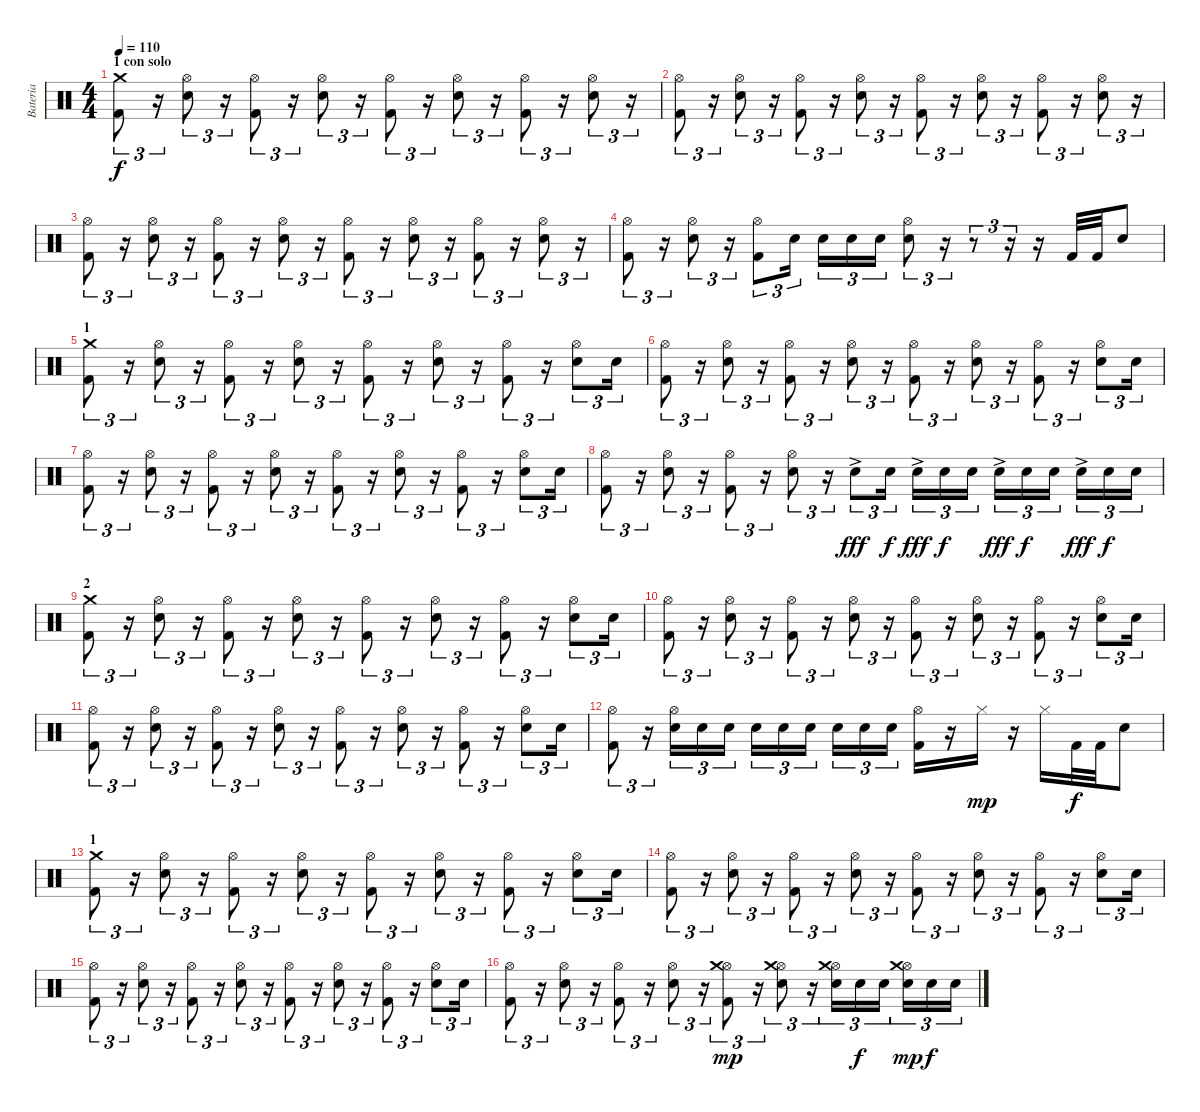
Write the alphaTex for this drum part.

\track ("Bateria" "Bateria") {instrument percussion}
\staff {score}
\articulation defaults
\ts (4 4)
\section ("" "1 con solo")
\tempo 110
\clef neutral
\ks c
("Crash medium (hit)" "Kick (hit) 2").8{tu (3 2) dy f} r.16{tu (3 2)} ("Hi-Hat (open)" "Electric Snare (hit)").8{tu (3 2)} r.16{tu (3 2)} ("Hi-Hat (open)" "Kick (hit) 2").8{tu (3 2)} r.16{tu (3 2)} ("Hi-Hat (open)" "Electric Snare (hit)").8{tu (3 2)} r.16{tu (3 2)} ("Hi-Hat (open)" "Kick (hit) 2").8{tu (3 2)} r.16{tu (3 2)} ("Hi-Hat (open)" "Electric Snare (hit)").8{tu (3 2)} r.16{tu (3 2)} ("Hi-Hat (open)" "Kick (hit) 2").8{tu (3 2)} r.16{tu (3 2)} ("Hi-Hat (open)" "Electric Snare (hit)").8{tu (3 2)} r.16{tu (3 2)} |
("Hi-Hat (open)" "Kick (hit) 2").8{tu (3 2)} r.16{tu (3 2)} ("Hi-Hat (open)" "Electric Snare (hit)").8{tu (3 2)} r.16{tu (3 2)} ("Hi-Hat (open)" "Kick (hit) 2").8{tu (3 2)} r.16{tu (3 2)} ("Hi-Hat (open)" "Electric Snare (hit)").8{tu (3 2)} r.16{tu (3 2)} ("Hi-Hat (open)" "Kick (hit) 2").8{tu (3 2)} r.16{tu (3 2)} ("Hi-Hat (open)" "Electric Snare (hit)").8{tu (3 2)} r.16{tu (3 2)} ("Hi-Hat (open)" "Kick (hit) 2").8{tu (3 2)} r.16{tu (3 2)} ("Hi-Hat (open)" "Electric Snare (hit)").8{tu (3 2)} r.16{tu (3 2)} |
("Hi-Hat (open)" "Kick (hit) 2").8{tu (3 2)} r.16{tu (3 2)} ("Hi-Hat (open)" "Electric Snare (hit)").8{tu (3 2)} r.16{tu (3 2)} ("Hi-Hat (open)" "Kick (hit) 2").8{tu (3 2)} r.16{tu (3 2)} ("Hi-Hat (open)" "Electric Snare (hit)").8{tu (3 2)} r.16{tu (3 2)} ("Hi-Hat (open)" "Kick (hit) 2").8{tu (3 2)} r.16{tu (3 2)} ("Hi-Hat (open)" "Electric Snare (hit)").8{tu (3 2)} r.16{tu (3 2)} ("Hi-Hat (open)" "Kick (hit) 2").8{tu (3 2)} r.16{tu (3 2)} ("Hi-Hat (open)" "Electric Snare (hit)").8{tu (3 2)} r.16{tu (3 2)} |
("Hi-Hat (open)" "Kick (hit) 2").8{tu (3 2)} r.16{tu (3 2)} ("Hi-Hat (open)" "Electric Snare (hit)").8{tu (3 2)} r.16{tu (3 2)} ("Hi-Hat (open)" "Kick (hit) 2").8{tu (3 2)} "Electric Snare (hit)".16{tu (3 2)} "Electric Snare (hit)".16{tu (3 2)} "Electric Snare (hit)".16{tu (3 2)} "Electric Snare (hit)".16{tu (3 2)} ("Hi-Hat (open)" "Electric Snare (hit)").8{tu (3 2)} r.16{tu (3 2)} r.8{tu (3 2)} r.16{tu (3 2)} r.16 "Kick (hit) 2".32 "Kick (hit) 2".32 "Electric Snare (hit)".8 |
\section ("" "1")
("Crash medium (hit)" "Kick (hit) 2").8{tu (3 2)} r.16{tu (3 2)} ("Hi-Hat (open)" "Electric Snare (hit)").8{tu (3 2)} r.16{tu (3 2)} ("Hi-Hat (open)" "Kick (hit) 2").8{tu (3 2)} r.16{tu (3 2)} ("Hi-Hat (open)" "Electric Snare (hit)").8{tu (3 2)} r.16{tu (3 2)} ("Hi-Hat (open)" "Kick (hit) 2").8{tu (3 2)} r.16{tu (3 2)} ("Hi-Hat (open)" "Electric Snare (hit)").8{tu (3 2)} r.16{tu (3 2)} ("Hi-Hat (open)" "Kick (hit) 2").8{tu (3 2)} r.16{tu (3 2)} ("Hi-Hat (open)" "Electric Snare (hit)").8{tu (3 2)} "Electric Snare (hit)".16{tu (3 2)} |
("Hi-Hat (open)" "Kick (hit) 2").8{tu (3 2)} r.16{tu (3 2)} ("Hi-Hat (open)" "Electric Snare (hit)").8{tu (3 2)} r.16{tu (3 2)} ("Hi-Hat (open)" "Kick (hit) 2").8{tu (3 2)} r.16{tu (3 2)} ("Hi-Hat (open)" "Electric Snare (hit)").8{tu (3 2)} r.16{tu (3 2)} ("Hi-Hat (open)" "Kick (hit) 2").8{tu (3 2)} r.16{tu (3 2)} ("Hi-Hat (open)" "Electric Snare (hit)").8{tu (3 2)} r.16{tu (3 2)} ("Hi-Hat (open)" "Kick (hit) 2").8{tu (3 2)} r.16{tu (3 2)} ("Hi-Hat (open)" "Electric Snare (hit)").8{tu (3 2)} "Electric Snare (hit)".16{tu (3 2)} |
("Hi-Hat (open)" "Kick (hit) 2").8{tu (3 2)} r.16{tu (3 2)} ("Hi-Hat (open)" "Electric Snare (hit)").8{tu (3 2)} r.16{tu (3 2)} ("Hi-Hat (open)" "Kick (hit) 2").8{tu (3 2)} r.16{tu (3 2)} ("Hi-Hat (open)" "Electric Snare (hit)").8{tu (3 2)} r.16{tu (3 2)} ("Hi-Hat (open)" "Kick (hit) 2").8{tu (3 2)} r.16{tu (3 2)} ("Hi-Hat (open)" "Electric Snare (hit)").8{tu (3 2)} r.16{tu (3 2)} ("Hi-Hat (open)" "Kick (hit) 2").8{tu (3 2)} r.16{tu (3 2)} ("Hi-Hat (open)" "Electric Snare (hit)").8{tu (3 2)} "Electric Snare (hit)".16{tu (3 2)} |
("Hi-Hat (open)" "Kick (hit) 2").8{tu (3 2)} r.16{tu (3 2)} ("Hi-Hat (open)" "Electric Snare (hit)").8{tu (3 2)} r.16{tu (3 2)} ("Hi-Hat (open)" "Kick (hit) 2").8{tu (3 2)} r.16{tu (3 2)} ("Hi-Hat (open)" "Electric Snare (hit)").8{tu (3 2)} r.16{tu (3 2)} "Electric Snare (hit)"{ac}.8{tu (3 2) dy fff} "Electric Snare (hit)".16{tu (3 2) dy f} "Electric Snare (hit)"{ac}.16{tu (3 2) dy fff} "Electric Snare (hit)".16{tu (3 2) dy f} "Electric Snare (hit)".16{tu (3 2)} "Electric Snare (hit)"{ac}.16{tu (3 2) dy fff} "Electric Snare (hit)".16{tu (3 2) dy f} "Electric Snare (hit)".16{tu (3 2)} "Electric Snare (hit)"{ac}.16{tu (3 2) dy fff} "Electric Snare (hit)".16{tu (3 2) dy f} "Electric Snare (hit)".16{tu (3 2)} |
\section ("" "2")
("Crash medium (hit)" "Kick (hit) 2").8{tu (3 2)} r.16{tu (3 2)} ("Hi-Hat (open)" "Electric Snare (hit)").8{tu (3 2)} r.16{tu (3 2)} ("Hi-Hat (open)" "Kick (hit) 2").8{tu (3 2)} r.16{tu (3 2)} ("Hi-Hat (open)" "Electric Snare (hit)").8{tu (3 2)} r.16{tu (3 2)} ("Hi-Hat (open)" "Kick (hit) 2").8{tu (3 2)} r.16{tu (3 2)} ("Hi-Hat (open)" "Electric Snare (hit)").8{tu (3 2)} r.16{tu (3 2)} ("Hi-Hat (open)" "Kick (hit) 2").8{tu (3 2)} r.16{tu (3 2)} ("Hi-Hat (open)" "Electric Snare (hit)").8{tu (3 2)} "Electric Snare (hit)".16{tu (3 2)} |
("Hi-Hat (open)" "Kick (hit) 2").8{tu (3 2)} r.16{tu (3 2)} ("Hi-Hat (open)" "Electric Snare (hit)").8{tu (3 2)} r.16{tu (3 2)} ("Hi-Hat (open)" "Kick (hit) 2").8{tu (3 2)} r.16{tu (3 2)} ("Hi-Hat (open)" "Electric Snare (hit)").8{tu (3 2)} r.16{tu (3 2)} ("Hi-Hat (open)" "Kick (hit) 2").8{tu (3 2)} r.16{tu (3 2)} ("Hi-Hat (open)" "Electric Snare (hit)").8{tu (3 2)} r.16{tu (3 2)} ("Hi-Hat (open)" "Kick (hit) 2").8{tu (3 2)} r.16{tu (3 2)} ("Hi-Hat (open)" "Electric Snare (hit)").8{tu (3 2)} "Electric Snare (hit)".16{tu (3 2)} |
("Hi-Hat (open)" "Kick (hit) 2").8{tu (3 2)} r.16{tu (3 2)} ("Hi-Hat (open)" "Electric Snare (hit)").8{tu (3 2)} r.16{tu (3 2)} ("Hi-Hat (open)" "Kick (hit) 2").8{tu (3 2)} r.16{tu (3 2)} ("Hi-Hat (open)" "Electric Snare (hit)").8{tu (3 2)} r.16{tu (3 2)} ("Hi-Hat (open)" "Kick (hit) 2").8{tu (3 2)} r.16{tu (3 2)} ("Hi-Hat (open)" "Electric Snare (hit)").8{tu (3 2)} r.16{tu (3 2)} ("Hi-Hat (open)" "Kick (hit) 2").8{tu (3 2)} r.16{tu (3 2)} ("Hi-Hat (open)" "Electric Snare (hit)").8{tu (3 2)} "Electric Snare (hit)".16{tu (3 2)} |
("Hi-Hat (open)" "Kick (hit) 2").8{tu (3 2)} r.16{tu (3 2)} ("Hi-Hat (open)" "Electric Snare (hit)").16{tu (3 2)} "Electric Snare (hit)".16{tu (3 2)} "Electric Snare (hit)".16{tu (3 2)} "Electric Snare (hit)".16{tu (3 2)} "Electric Snare (hit)".16{tu (3 2)} "Electric Snare (hit)".16{tu (3 2)} "Electric Snare (hit)".16{tu (3 2)} "Electric Snare (hit)".16{tu (3 2)} "Electric Snare (hit)".16{tu (3 2)} ("Hi-Hat (open)" "Kick (hit) 2").16 r.16 "Hi-Hat (closed)".16{dy mp} r.16 "Hi-Hat (closed)".16 "Kick (hit) 2".32{dy f} "Kick (hit) 2".32 "Electric Snare (hit)".8 |
\section ("" "1")
("Crash medium (hit)" "Kick (hit) 2").8{tu (3 2)} r.16{tu (3 2)} ("Hi-Hat (open)" "Electric Snare (hit)").8{tu (3 2)} r.16{tu (3 2)} ("Hi-Hat (open)" "Kick (hit) 2").8{tu (3 2)} r.16{tu (3 2)} ("Hi-Hat (open)" "Electric Snare (hit)").8{tu (3 2)} r.16{tu (3 2)} ("Hi-Hat (open)" "Kick (hit) 2").8{tu (3 2)} r.16{tu (3 2)} ("Hi-Hat (open)" "Electric Snare (hit)").8{tu (3 2)} r.16{tu (3 2)} ("Hi-Hat (open)" "Kick (hit) 2").8{tu (3 2)} r.16{tu (3 2)} ("Hi-Hat (open)" "Electric Snare (hit)").8{tu (3 2)} "Electric Snare (hit)".16{tu (3 2)} |
("Hi-Hat (open)" "Kick (hit) 2").8{tu (3 2)} r.16{tu (3 2)} ("Hi-Hat (open)" "Electric Snare (hit)").8{tu (3 2)} r.16{tu (3 2)} ("Hi-Hat (open)" "Kick (hit) 2").8{tu (3 2)} r.16{tu (3 2)} ("Hi-Hat (open)" "Electric Snare (hit)").8{tu (3 2)} r.16{tu (3 2)} ("Hi-Hat (open)" "Kick (hit) 2").8{tu (3 2)} r.16{tu (3 2)} ("Hi-Hat (open)" "Electric Snare (hit)").8{tu (3 2)} r.16{tu (3 2)} ("Hi-Hat (open)" "Kick (hit) 2").8{tu (3 2)} r.16{tu (3 2)} ("Hi-Hat (open)" "Electric Snare (hit)").8{tu (3 2)} "Electric Snare (hit)".16{tu (3 2)} |
("Hi-Hat (open)" "Kick (hit) 2").8{tu (3 2)} r.16{tu (3 2)} ("Hi-Hat (open)" "Electric Snare (hit)").8{tu (3 2)} r.16{tu (3 2)} ("Hi-Hat (open)" "Kick (hit) 2").8{tu (3 2)} r.16{tu (3 2)} ("Hi-Hat (open)" "Electric Snare (hit)").8{tu (3 2)} r.16{tu (3 2)} ("Hi-Hat (open)" "Kick (hit) 2").8{tu (3 2)} r.16{tu (3 2)} ("Hi-Hat (open)" "Electric Snare (hit)").8{tu (3 2)} r.16{tu (3 2)} ("Hi-Hat (open)" "Kick (hit) 2").8{tu (3 2)} r.16{tu (3 2)} ("Hi-Hat (open)" "Electric Snare (hit)").8{tu (3 2)} "Electric Snare (hit)".16{tu (3 2)} |
("Hi-Hat (open)" "Kick (hit) 2").8{tu (3 2)} r.16{tu (3 2)} ("Hi-Hat (open)" "Electric Snare (hit)").8{tu (3 2)} r.16{tu (3 2)} ("Hi-Hat (open)" "Kick (hit) 2").8{tu (3 2)} r.16{tu (3 2)} ("Hi-Hat (open)" "Electric Snare (hit)").8{tu (3 2)} r.16{tu (3 2)} ("Hi-Hat (open)" "Crash medium (hit)" "Kick (hit) 2").8{tu (3 2) dy mp} r.16{tu (3 2)} ("Hi-Hat (open)" "Crash medium (hit)" "Electric Snare (hit)").8{tu (3 2)} r.16{tu (3 2)} ("Hi-Hat (open)" "Crash medium (hit)" "Electric Snare (hit)").16{tu (3 2)} "Electric Snare (hit)".16{tu (3 2) dy f} "Electric Snare (hit)".16{tu (3 2)} ("Hi-Hat (open)" "Crash medium (hit)" "Electric Snare (hit)").16{tu (3 2) dy mp} "Electric Snare (hit)".16{tu (3 2) dy f} "Electric Snare (hit)".16{tu (3 2)}
